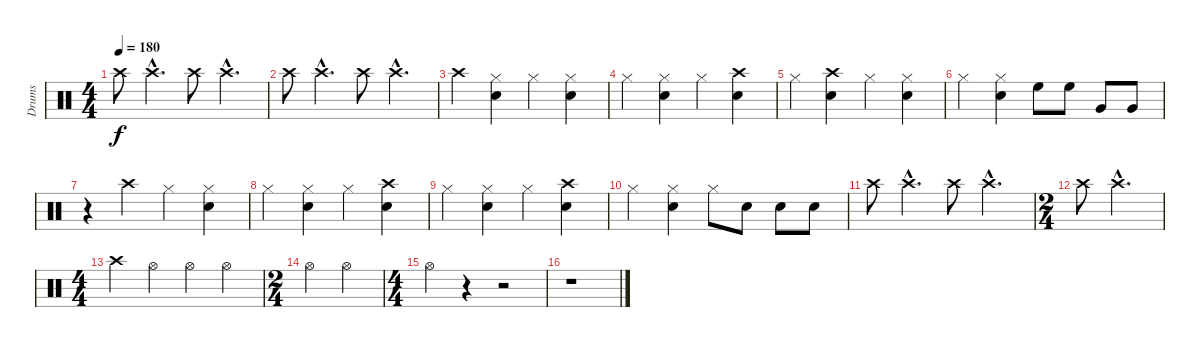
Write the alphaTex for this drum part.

\track ("Drums" "Drums") {instrument percussion}
\staff {score}
\articulation defaults
\ts (4 4)
\tempo 180
\clef neutral
\ks c "Crash high (hit)".8{dy f} "Crash high (hit)"{hac}.4{d} "Crash high (hit)".8 "Crash high (hit)"{hac}.4{d}
|
"Crash high (hit)".8 "Crash high (hit)"{hac}.4{d} "Crash high (hit)".8 "Crash high (hit)"{hac}.4{d} |
"Crash high (hit)".4 ("Hi-Hat (closed)" "Snare (hit) 2").4 "Hi-Hat (closed)".4 ("Hi-Hat (closed)" "Snare (hit) 2").4 |
"Hi-Hat (closed)".4 ("Hi-Hat (closed)" "Snare (hit) 2").4 "Hi-Hat (closed)".4 ("Crash high (hit)" "Snare (hit) 2").4 |
"Hi-Hat (closed)".4 ("Crash high (hit)" "Snare (hit) 2").4 "Hi-Hat (closed)".4 ("Hi-Hat (closed)" "Snare (hit) 2").4 |
"Hi-Hat (closed)".4 ("Hi-Hat (closed)" "Snare (hit) 2").4 "High Floor Tom (hit)".8 "High Floor Tom (hit)".8 "Very Low Tom (hit)".8 "Very Low Tom (hit)".8 |
r.4 "Crash high (hit)".4 "Hi-Hat (closed)".4 ("Hi-Hat (closed)" "Snare (hit) 2").4 |
"Hi-Hat (closed)".4 ("Hi-Hat (closed)" "Snare (hit) 2").4 "Hi-Hat (closed)".4 ("Crash high (hit)" "Snare (hit) 2").4 |
"Hi-Hat (closed)".4 ("Hi-Hat (closed)" "Snare (hit) 2").4 "Hi-Hat (closed)".4 ("Crash high (hit)" "Snare (hit) 2").4 |
"Hi-Hat (closed)".4 ("Hi-Hat (closed)" "Snare (hit) 2").4 "Hi-Hat (closed)".8 "Snare (hit) 2".8 "Snare (hit) 2".8 "Snare (hit) 2".8 |
"Crash high (hit)".8 "Crash high (hit)"{hac}.4{d} "Crash high (hit)".8 "Crash high (hit)"{hac}.4{d} |
\ts (2 4)
"Crash high (hit)".8 "Crash high (hit)"{hac}.4{d} |
\ts (4 4)
"Crash high (hit)".4 "Hi-Hat (open)".4 "Hi-Hat (open)".4 "Hi-Hat (open)".4 |
\ts (2 4)
"Hi-Hat (open)".4 "Hi-Hat (open)".4 |
\ts (4 4)
"Hi-Hat (open)".4 r.4 r.2 |
r.1
